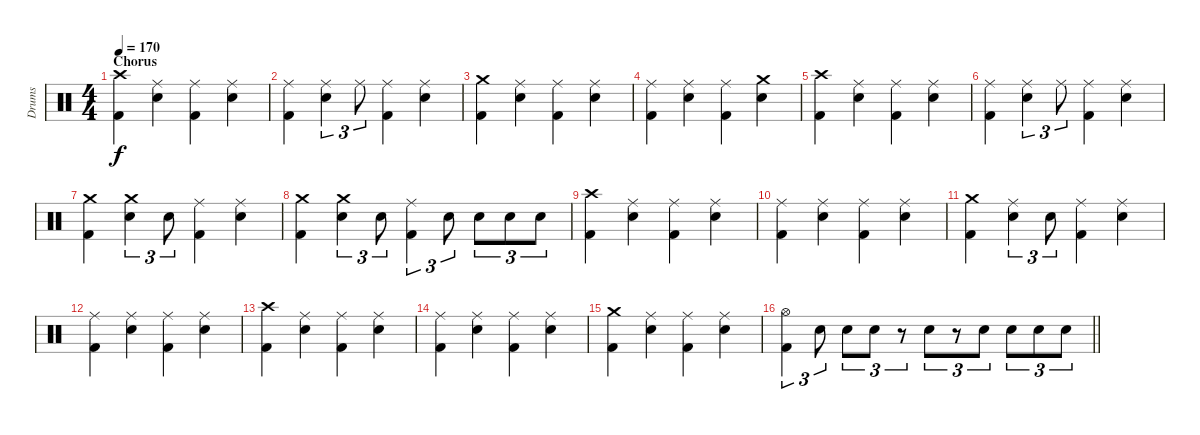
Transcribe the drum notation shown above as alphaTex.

\track ("Drums" "Drums") {instrument percussion}
\staff {score}
\articulation defaults
\ts (4 4)
\section ("" "Chorus")
\tempo 170
\clef neutral
\ks c
("Crash high (hit)" "Kick (hit) 2").4{dy f} ("Ride (middle)" "Electric Snare (hit)").4 ("Ride (middle)" "Kick (hit) 2").4 ("Ride (middle)" "Electric Snare (hit)").4 |
("Ride (middle)" "Kick (hit) 2").4 ("Ride (middle)" "Electric Snare (hit)").4{tu (3 2)} "Ride (middle)".8{tu (3 2)} ("Ride (middle)" "Kick (hit) 2").4 ("Ride (middle)" "Electric Snare (hit)").4 |
("Crash medium (hit)" "Kick (hit) 2").4 ("Ride (middle)" "Electric Snare (hit)").4 ("Ride (middle)" "Kick (hit) 2").4 ("Ride (middle)" "Electric Snare (hit)").4 |
("Ride (middle)" "Kick (hit) 2").4 ("Ride (middle)" "Electric Snare (hit)").4 ("Ride (middle)" "Kick (hit) 2").4 ("Crash medium (hit)" "Electric Snare (hit)").4 |
("Crash high (hit)" "Kick (hit) 2").4 ("Ride (middle)" "Electric Snare (hit)").4 ("Ride (middle)" "Kick (hit) 2").4 ("Ride (middle)" "Electric Snare (hit)").4 |
("Ride (middle)" "Kick (hit) 2").4 ("Ride (middle)" "Electric Snare (hit)").4{tu (3 2)} "Ride (middle)".8{tu (3 2)} ("Ride (middle)" "Kick (hit) 2").4 ("Ride (middle)" "Electric Snare (hit)").4 |
("Crash medium (hit)" "Kick (hit) 2").4 ("Crash medium (hit)" "Electric Snare (hit)").4{tu (3 2)} "Electric Snare (hit)".8{tu (3 2)} ("Ride (middle)" "Kick (hit) 2").4 ("Ride (middle)" "Electric Snare (hit)").4 |
("Crash medium (hit)" "Kick (hit) 2").4 ("Crash medium (hit)" "Electric Snare (hit)").4{tu (3 2)} "Electric Snare (hit)".8{tu (3 2)} ("Ride (middle)" "Kick (hit) 2").4{tu (3 2)} "Electric Snare (hit)".8{tu (3 2)} "Electric Snare (hit)".8{tu (3 2)} "Electric Snare (hit)".8{tu (3 2)} "Electric Snare (hit)".8{tu (3 2)} |
("Crash high (hit)" "Kick (hit) 2").4 ("Ride (middle)" "Electric Snare (hit)").4 ("Ride (middle)" "Kick (hit) 2").4 ("Ride (middle)" "Electric Snare (hit)").4 |
("Ride (middle)" "Kick (hit) 2").4 ("Ride (middle)" "Electric Snare (hit)").4 ("Ride (middle)" "Kick (hit) 2").4 ("Ride (middle)" "Electric Snare (hit)").4 |
("Crash medium (hit)" "Kick (hit) 2").4 ("Ride (middle)" "Electric Snare (hit)").4{tu (3 2)} "Electric Snare (hit)".8{tu (3 2)} ("Ride (middle)" "Kick (hit) 2").4 ("Ride (middle)" "Electric Snare (hit)").4 |
("Ride (middle)" "Kick (hit) 2").4 ("Ride (middle)" "Electric Snare (hit)").4 ("Ride (middle)" "Kick (hit) 2").4 ("Ride (middle)" "Electric Snare (hit)").4 |
("Crash high (hit)" "Kick (hit) 2").4 ("Ride (middle)" "Electric Snare (hit)").4 ("Ride (middle)" "Kick (hit) 2").4 ("Ride (middle)" "Electric Snare (hit)").4 |
("Ride (middle)" "Kick (hit) 2").4 ("Ride (middle)" "Electric Snare (hit)").4 ("Ride (middle)" "Kick (hit) 2").4 ("Ride (middle)" "Electric Snare (hit)").4 |
("Crash medium (hit)" "Kick (hit) 2").4 ("Ride (middle)" "Electric Snare (hit)").4 ("Ride (middle)" "Kick (hit) 2").4 ("Ride (middle)" "Electric Snare (hit)").4 |
\barLineRight lightlight
("Hi-Hat (open)" "Kick (hit) 2").4{tu (3 2)} "Electric Snare (hit)".8{tu (3 2)} "Electric Snare (hit)".8{tu (3 2)} "Electric Snare (hit)".8{tu (3 2)} r.8{tu (3 2)} "Electric Snare (hit)".8{tu (3 2)} r.8{tu (3 2)} "Electric Snare (hit)".8{tu (3 2)} "Electric Snare (hit)".8{tu (3 2)} "Electric Snare (hit)".8{tu (3 2)} "Electric Snare (hit)".8{tu (3 2)}
